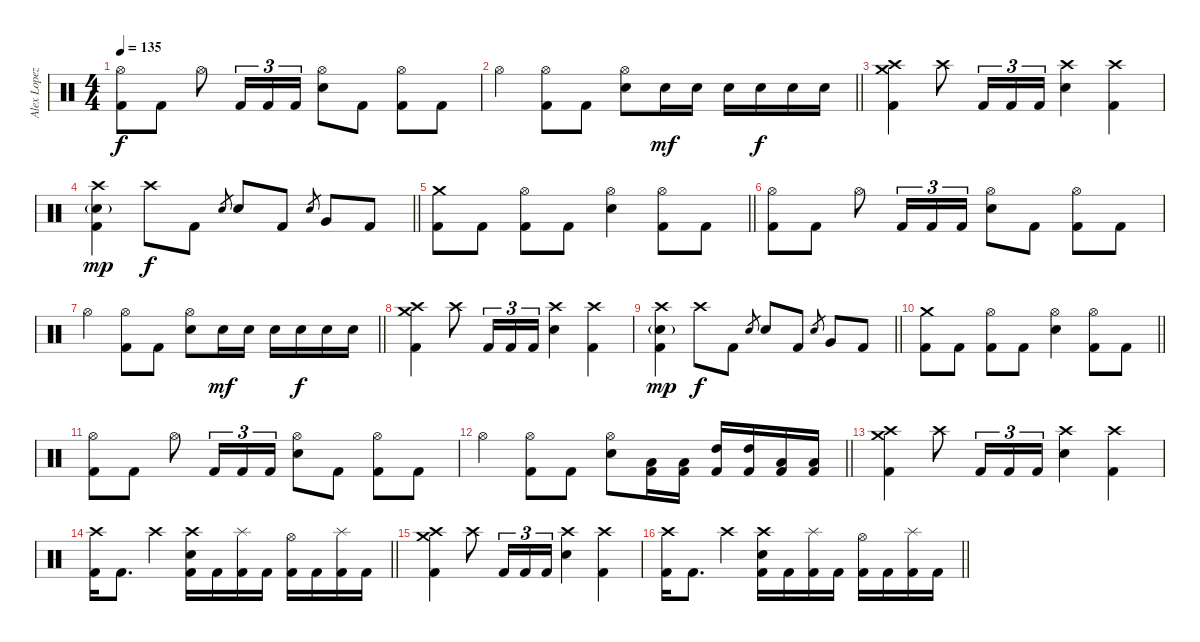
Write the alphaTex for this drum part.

\track ("Alex Lopez" "Alex Lopez") {instrument percussion}
\staff {score}
\articulation defaults
\ts (4 4)
\tempo 135
\clef neutral
\ks c
("Hi-Hat (open)" "Kick (hit) 2").8{dy f} "Kick (hit) 2".8 "Hi-Hat (open)".8 "Kick (hit) 2".16{tu (3 2)} "Kick (hit) 2".16{tu (3 2)} "Kick (hit) 2".16{tu (3 2)} ("Hi-Hat (open)" "Electric Snare (hit)").8 "Kick (hit) 2".8 ("Hi-Hat (open)" "Kick (hit) 2").8 "Kick (hit) 2".8 |
\barLineRight lightlight "Hi-Hat (open)".4
("Hi-Hat (open)" "Kick (hit) 2").8 "Kick (hit) 2".8 ("Hi-Hat (open)" "Electric Snare (hit)").8 "Electric Snare (hit)".16{dy mf} "Electric Snare (hit)".16 "Electric Snare (hit)".16 "Electric Snare (hit)".16{dy f} "Electric Snare (hit)".16 "Electric Snare (hit)".16 |
("Crash medium (hit)" "Crash high (hit)" "Kick (hit) 2").4 "Crash high (hit)".8 "Kick (hit) 2".16{tu (3 2)} "Kick (hit) 2".16{tu (3 2)} "Kick (hit) 2".16{tu (3 2)} ("Crash high (hit)" "Electric Snare (hit)").4 ("Crash high (hit)" "Kick (hit) 2").4 |
\barLineRight lightlight
("Crash high (hit)" "Electric Snare (hit)"{g} "Kick (hit) 2").4{dy mp} "Crash high (hit)".8{dy f} "Kick (hit) 2".8 "Electric Snare (hit)".8{gr} "Electric Snare (hit)".8 "Kick (hit) 2".8 "Electric Snare (hit)".8{gr} "Very Low Tom (hit)".8 "Kick (hit) 2".8 |
\barLineRight lightlight
("Crash medium (hit)" "Kick (hit) 2").8 "Kick (hit) 2".8 ("Hi-Hat (open)" "Kick (hit) 2").8 "Kick (hit) 2".8 ("Hi-Hat (open)" "Electric Snare (hit)").4 ("Hi-Hat (open)" "Kick (hit) 2").8 "Kick (hit) 2".8 |
("Hi-Hat (open)" "Kick (hit) 2").8 "Kick (hit) 2".8 "Hi-Hat (open)".8 "Kick (hit) 2".16{tu (3 2)} "Kick (hit) 2".16{tu (3 2)} "Kick (hit) 2".16{tu (3 2)} ("Hi-Hat (open)" "Electric Snare (hit)").8 "Kick (hit) 2".8 ("Hi-Hat (open)" "Kick (hit) 2").8 "Kick (hit) 2".8 |
\barLineRight lightlight "Hi-Hat (open)".4
("Hi-Hat (open)" "Kick (hit) 2").8 "Kick (hit) 2".8 ("Hi-Hat (open)" "Electric Snare (hit)").8 "Electric Snare (hit)".16{dy mf} "Electric Snare (hit)".16 "Electric Snare (hit)".16 "Electric Snare (hit)".16{dy f} "Electric Snare (hit)".16 "Electric Snare (hit)".16 |
("Crash medium (hit)" "Crash high (hit)" "Kick (hit) 2").4 "Crash high (hit)".8 "Kick (hit) 2".16{tu (3 2)} "Kick (hit) 2".16{tu (3 2)} "Kick (hit) 2".16{tu (3 2)} ("Crash high (hit)" "Electric Snare (hit)").4 ("Crash high (hit)" "Kick (hit) 2").4 |
\barLineRight lightlight
("Crash high (hit)" "Electric Snare (hit)"{g} "Kick (hit) 2").4{dy mp} "Crash high (hit)".8{dy f} "Kick (hit) 2".8 "Electric Snare (hit)".8{gr} "Electric Snare (hit)".8 "Kick (hit) 2".8 "Electric Snare (hit)".8{gr} "Very Low Tom (hit)".8 "Kick (hit) 2".8 |
\barLineRight lightlight
("Crash medium (hit)" "Kick (hit) 2").8 "Kick (hit) 2".8 ("Hi-Hat (open)" "Kick (hit) 2").8 "Kick (hit) 2".8 ("Hi-Hat (open)" "Electric Snare (hit)").4 ("Hi-Hat (open)" "Kick (hit) 2").8 "Kick (hit) 2".8 |
("Hi-Hat (open)" "Kick (hit) 2").8 "Kick (hit) 2".8 "Hi-Hat (open)".8 "Kick (hit) 2".16{tu (3 2)} "Kick (hit) 2".16{tu (3 2)} "Kick (hit) 2".16{tu (3 2)} ("Hi-Hat (open)" "Electric Snare (hit)").8 "Kick (hit) 2".8 ("Hi-Hat (open)" "Kick (hit) 2").8 "Kick (hit) 2".8 |
\barLineRight lightlight "Hi-Hat (open)".4
("Hi-Hat (open)" "Kick (hit) 2").8 "Kick (hit) 2".8 ("Hi-Hat (open)" "Electric Snare (hit)").8 ("Low Tom (hit)" "Kick (hit) 2").16 ("Low Tom (hit)" "Kick (hit) 2").16 ("High Tom (hit)" "Kick (hit) 2").16 ("High Tom (hit)" "Kick (hit) 2").16 ("Low Floor Tom (hit)" "Kick (hit) 2").16 ("Low Floor Tom (hit)" "Kick (hit) 2").16 |
("Crash medium (hit)" "Crash high (hit)" "Kick (hit) 2").4 "Crash high (hit)".8 "Kick (hit) 2".16{tu (3 2)} "Kick (hit) 2".16{tu (3 2)} "Kick (hit) 2".16{tu (3 2)} ("Crash high (hit)" "Electric Snare (hit)").4 ("Crash high (hit)" "Kick (hit) 2").4 |
\barLineRight lightlight
("Crash high (hit)" "Kick (hit) 2").16 "Kick (hit) 2".8{d} "Crash high (hit)".4 ("Crash high (hit)" "Electric Snare (hit)" "Kick (hit) 2").16 "Kick (hit) 2".16 ("Splash (hit)" "Kick (hit) 2").16 "Kick (hit) 2".16 ("Hi-Hat (open)" "Kick (hit) 2").16 "Kick (hit) 2".16 ("Splash (hit)" "Kick (hit) 2").16 "Kick (hit) 2".16 |
("Crash medium (hit)" "Crash high (hit)" "Kick (hit) 2").4 "Crash high (hit)".8 "Kick (hit) 2".16{tu (3 2)} "Kick (hit) 2".16{tu (3 2)} "Kick (hit) 2".16{tu (3 2)} ("Crash high (hit)" "Electric Snare (hit)").4 ("Crash high (hit)" "Kick (hit) 2").4 |
\barLineRight lightlight
("Crash high (hit)" "Kick (hit) 2").16 "Kick (hit) 2".8{d} "Crash high (hit)".4 ("Crash high (hit)" "Electric Snare (hit)" "Kick (hit) 2").16 "Kick (hit) 2".16 ("Splash (hit)" "Kick (hit) 2").16 "Kick (hit) 2".16 ("Hi-Hat (open)" "Kick (hit) 2").16 "Kick (hit) 2".16 ("Splash (hit)" "Kick (hit) 2").16 "Kick (hit) 2".16
